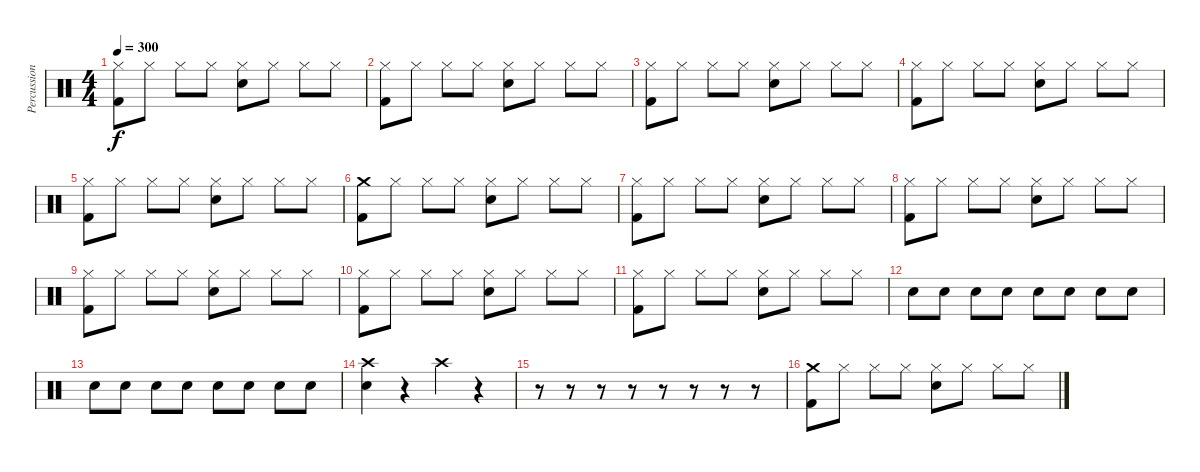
\track ("Percussion" "Percussion") {instrument percussion}
\staff {score}
\articulation defaults
\ts (4 4)
\tempo 300
\clef neutral
\ks c
("Kick (hit) 2" "Hi-Hat (closed)").8{dy f} "Hi-Hat (closed)".8 "Hi-Hat (closed)".8 "Hi-Hat (closed)".8 ("Snare (hit) 2" "Hi-Hat (closed)").8 "Hi-Hat (closed)".8 "Hi-Hat (closed)".8 "Hi-Hat (closed)".8 |
("Kick (hit) 2" "Hi-Hat (closed)").8 "Hi-Hat (closed)".8 "Hi-Hat (closed)".8 "Hi-Hat (closed)".8 ("Snare (hit) 2" "Hi-Hat (closed)").8 "Hi-Hat (closed)".8 "Hi-Hat (closed)".8 "Hi-Hat (closed)".8 |
("Kick (hit) 2" "Hi-Hat (closed)").8 "Hi-Hat (closed)".8 "Hi-Hat (closed)".8 "Hi-Hat (closed)".8 ("Snare (hit) 2" "Hi-Hat (closed)").8 "Hi-Hat (closed)".8 "Hi-Hat (closed)".8 "Hi-Hat (closed)".8 |
("Kick (hit) 2" "Hi-Hat (closed)").8 "Hi-Hat (closed)".8 "Hi-Hat (closed)".8 "Hi-Hat (closed)".8 ("Snare (hit) 2" "Hi-Hat (closed)").8 "Hi-Hat (closed)".8 "Hi-Hat (closed)".8 "Hi-Hat (closed)".8 |
("Kick (hit) 2" "Hi-Hat (closed)").8 "Hi-Hat (closed)".8 "Hi-Hat (closed)".8 "Hi-Hat (closed)".8 ("Snare (hit) 2" "Hi-Hat (closed)").8 "Hi-Hat (closed)".8 "Hi-Hat (closed)".8 "Hi-Hat (closed)".8 |
("Crash medium (hit)" "Kick (hit) 2").8 "Hi-Hat (closed)".8 "Hi-Hat (closed)".8 "Hi-Hat (closed)".8 ("Snare (hit) 2" "Hi-Hat (closed)").8 "Hi-Hat (closed)".8 "Hi-Hat (closed)".8 "Hi-Hat (closed)".8 |
("Kick (hit) 2" "Hi-Hat (closed)").8 "Hi-Hat (closed)".8 "Hi-Hat (closed)".8 "Hi-Hat (closed)".8 ("Snare (hit) 2" "Hi-Hat (closed)").8 "Hi-Hat (closed)".8 "Hi-Hat (closed)".8 "Hi-Hat (closed)".8 |
("Kick (hit) 2" "Hi-Hat (closed)").8 "Hi-Hat (closed)".8 "Hi-Hat (closed)".8 "Hi-Hat (closed)".8 ("Snare (hit) 2" "Hi-Hat (closed)").8 "Hi-Hat (closed)".8 "Hi-Hat (closed)".8 "Hi-Hat (closed)".8 |
("Kick (hit) 2" "Hi-Hat (closed)").8 "Hi-Hat (closed)".8 "Hi-Hat (closed)".8 "Hi-Hat (closed)".8 ("Snare (hit) 2" "Hi-Hat (closed)").8 "Hi-Hat (closed)".8 "Hi-Hat (closed)".8 "Hi-Hat (closed)".8 |
("Kick (hit) 2" "Hi-Hat (closed)").8 "Hi-Hat (closed)".8 "Hi-Hat (closed)".8 "Hi-Hat (closed)".8 ("Snare (hit) 2" "Hi-Hat (closed)").8 "Hi-Hat (closed)".8 "Hi-Hat (closed)".8 "Hi-Hat (closed)".8 |
("Kick (hit) 2" "Hi-Hat (closed)").8 "Hi-Hat (closed)".8 "Hi-Hat (closed)".8 "Hi-Hat (closed)".8 ("Snare (hit) 2" "Hi-Hat (closed)").8 "Hi-Hat (closed)".8 "Hi-Hat (closed)".8 "Hi-Hat (closed)".8 |
"Snare (hit) 2".8 "Snare (hit) 2".8 "Snare (hit) 2".8 "Snare (hit) 2".8 "Snare (hit) 2".8 "Snare (hit) 2".8 "Snare (hit) 2".8 "Snare (hit) 2".8 |
"Snare (hit) 2".8 "Snare (hit) 2".8 "Snare (hit) 2".8 "Snare (hit) 2".8 "Snare (hit) 2".8 "Snare (hit) 2".8 "Snare (hit) 2".8 "Snare (hit) 2".8 |
("Snare (hit) 2" "Crash high (hit)").4 r.4 "Crash high (hit)".4 r.4 |
r.8 r.8 r.8 r.8 r.8 r.8 r.8 r.8 |
("Crash medium (hit)" "Kick (hit) 2").8 "Hi-Hat (closed)".8 "Hi-Hat (closed)".8 "Hi-Hat (closed)".8 ("Snare (hit) 2" "Hi-Hat (closed)").8 "Hi-Hat (closed)".8 "Hi-Hat (closed)".8 "Hi-Hat (closed)".8
